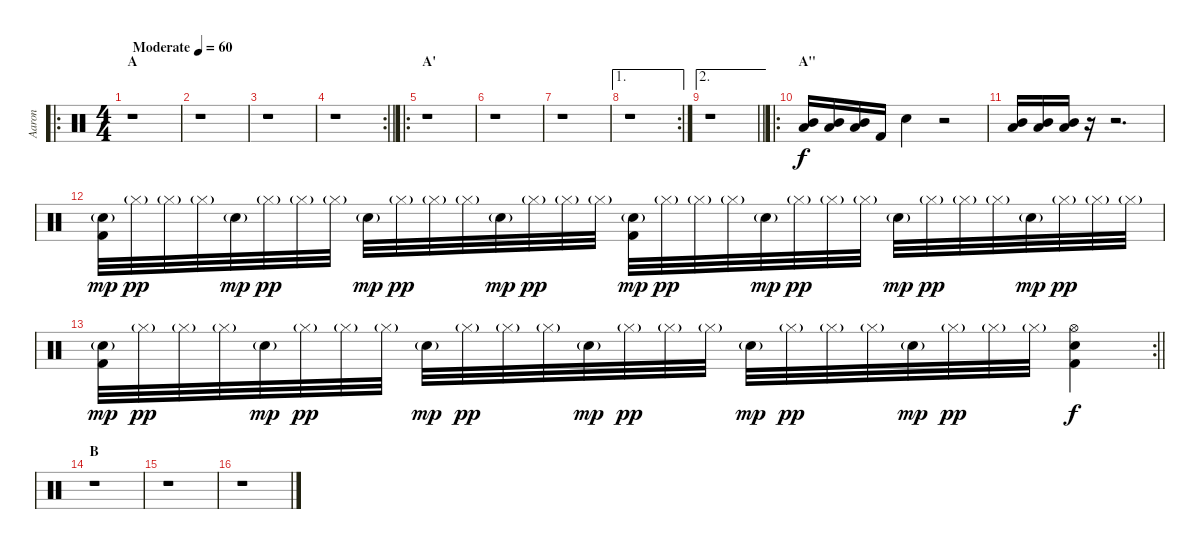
\track ("Aaron" "Aaron") {instrument percussion}
\staff {score}
\articulation defaults
\ro
\ts (4 4)
\section ("" "A")
\tempo (60 "Moderate")
\clef neutral
\ks c
r.1{dy f} |
r.1 |
r.1 |
\rc 2
\barLineRight lightlight
r.1 |
\ro
\section ("" "A'")
r.1 |
r.1 |
r.1 |
\ae 1
\rc 2
r.1 |
\ae 2
\barLineRight lightlight
r.1 |
\ro
\section ("" "A''")
("Mid Tom (hit)" "Low Tom (hit)").16 ("Mid Tom (hit)" "Low Tom (hit)").16 ("Mid Tom (hit)" "Low Tom (hit)").16 "Kick (hit) 2".16 "Snare (hit) 2".4 r.2 |
("Mid Tom (hit)" "Low Tom (hit)").16 ("Mid Tom (hit)" "Low Tom (hit)").16 ("Mid Tom (hit)" "Low Tom (hit)").16 r.16 r.2{d} |
("Snare (hit) 2"{g} "Kick (hit) 2").32{dy mp} "Hi-Hat (closed)"{g}.32{dy pp} "Hi-Hat (closed)"{g}.32 "Hi-Hat (closed)"{g}.32 "Snare (hit) 2"{g}.32{dy mp} "Hi-Hat (closed)"{g}.32{dy pp} "Hi-Hat (closed)"{g}.32 "Hi-Hat (closed)"{g}.32 "Snare (hit) 2"{g}.32{dy mp} "Hi-Hat (closed)"{g}.32{dy pp} "Hi-Hat (closed)"{g}.32 "Hi-Hat (closed)"{g}.32 "Snare (hit) 2"{g}.32{dy mp} "Hi-Hat (closed)"{g}.32{dy pp} "Hi-Hat (closed)"{g}.32 "Hi-Hat (closed)"{g}.32 ("Snare (hit) 2"{g} "Kick (hit) 2").32{dy mp} "Hi-Hat (closed)"{g}.32{dy pp} "Hi-Hat (closed)"{g}.32 "Hi-Hat (closed)"{g}.32 "Snare (hit) 2"{g}.32{dy mp} "Hi-Hat (closed)"{g}.32{dy pp} "Hi-Hat (closed)"{g}.32 "Hi-Hat (closed)"{g}.32 "Snare (hit) 2"{g}.32{dy mp} "Hi-Hat (closed)"{g}.32{dy pp} "Hi-Hat (closed)"{g}.32 "Hi-Hat (closed)"{g}.32 "Snare (hit) 2"{g}.32{dy mp} "Hi-Hat (closed)"{g}.32{dy pp} "Hi-Hat (closed)"{g}.32 "Hi-Hat (closed)"{g}.32 |
\rc 2
\barLineRight lightlight
("Snare (hit) 2"{g} "Kick (hit) 2").32{dy mp} "Hi-Hat (closed)"{g}.32{dy pp} "Hi-Hat (closed)"{g}.32 "Hi-Hat (closed)"{g}.32 "Snare (hit) 2"{g}.32{dy mp} "Hi-Hat (closed)"{g}.32{dy pp} "Hi-Hat (closed)"{g}.32 "Hi-Hat (closed)"{g}.32 "Snare (hit) 2"{g}.32{dy mp} "Hi-Hat (closed)"{g}.32{dy pp} "Hi-Hat (closed)"{g}.32 "Hi-Hat (closed)"{g}.32 "Snare (hit) 2"{g}.32{dy mp} "Hi-Hat (closed)"{g}.32{dy pp} "Hi-Hat (closed)"{g}.32 "Hi-Hat (closed)"{g}.32 "Snare (hit) 2"{g}.32{dy mp} "Hi-Hat (closed)"{g}.32{dy pp} "Hi-Hat (closed)"{g}.32 "Hi-Hat (closed)"{g}.32 "Snare (hit) 2"{g}.32{dy mp} "Hi-Hat (closed)"{g}.32{dy pp} "Hi-Hat (closed)"{g}.32 "Hi-Hat (closed)"{g}.32 ("Hi-Hat (open)" "Snare (hit) 2" "Kick (hit) 2").4{dy f} |
\section ("" "B")
r.1 |
r.1 |
r.1
